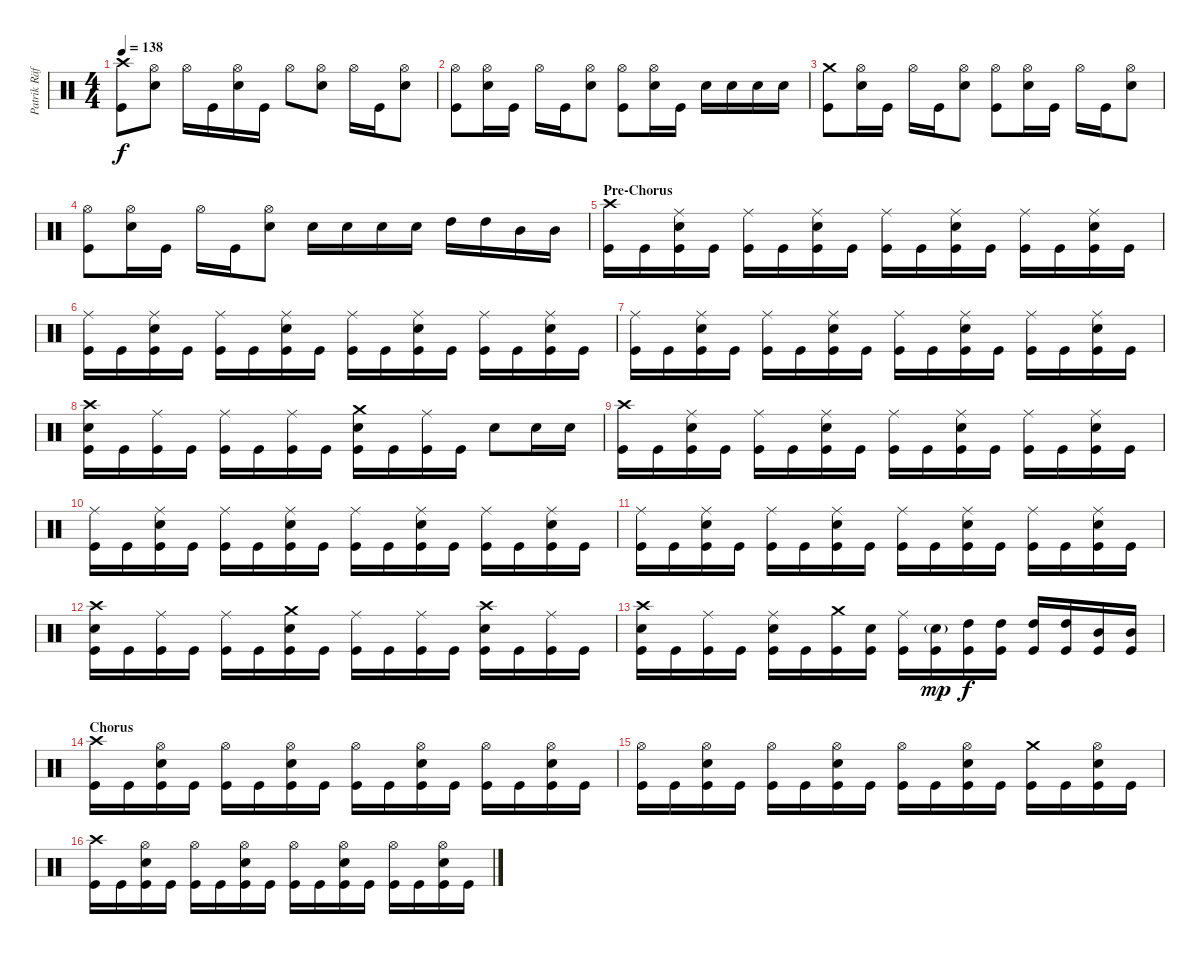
\track ("Patrik Räfling" "Patrik Räf") {instrument percussion}
\staff {score}
\articulation defaults
\ts (4 4)
\tempo 138
\clef neutral
\ks c
("Crash high (hit)" "Kick (hit)").8{dy f} ("Hi-Hat (open)" "Snare (hit) 2").8 "Hi-Hat (open)".16 "Kick (hit)".16 ("Hi-Hat (open)" "Snare (hit) 2").16 "Kick (hit)".16 "Hi-Hat (open)".8 ("Hi-Hat (open)" "Snare (hit) 2").8 "Hi-Hat (open)".16 "Kick (hit)".16 ("Hi-Hat (open)" "Snare (hit) 2").8 |
("Hi-Hat (open)" "Kick (hit)").8 ("Hi-Hat (open)" "Snare (hit) 2").16 "Kick (hit)".16 "Hi-Hat (open)".16 "Kick (hit)".16 ("Hi-Hat (open)" "Snare (hit) 2").8 ("Hi-Hat (open)" "Kick (hit)").8 ("Hi-Hat (open)" "Snare (hit) 2").16 "Kick (hit)".16 "Snare (hit) 2".16 "Snare (hit) 2".16 "Snare (hit) 2".16 "Snare (hit) 2".16 |
("Crash medium (hit)" "Kick (hit)").8 ("Hi-Hat (open)" "Snare (hit) 2").16 "Kick (hit)".16 "Hi-Hat (open)".16 "Kick (hit)".16 ("Hi-Hat (open)" "Snare (hit) 2").8 ("Hi-Hat (open)" "Kick (hit)").8 ("Hi-Hat (open)" "Snare (hit) 2").16 "Kick (hit)".16 "Hi-Hat (open)".16 "Kick (hit)".16 ("Hi-Hat (open)" "Snare (hit) 2").8 |
("Hi-Hat (open)" "Kick (hit)").8 ("Hi-Hat (open)" "Snare (hit) 2").16 "Kick (hit)".16 "Hi-Hat (open)".16 "Kick (hit)".16 ("Hi-Hat (open)" "Snare (hit) 2").8 "Snare (hit) 2".16 "Snare (hit) 2".16 "Snare (hit) 2".16 "Snare (hit) 2".16 "High Tom (hit)".16 "High Tom (hit)".16 "Mid Tom (hit)".16 "Mid Tom (hit)".16 |
\section ("" "Pre-Chorus")
("Crash high (hit)" "Kick (hit)").16 "Kick (hit)".16 ("Ride (middle)" "Snare (hit) 2" "Kick (hit)").16 "Kick (hit)".16 ("Ride (middle)" "Kick (hit)").16 "Kick (hit)".16 ("Ride (middle)" "Snare (hit) 2" "Kick (hit)").16 "Kick (hit)".16 ("Ride (middle)" "Kick (hit)").16 "Kick (hit)".16 ("Ride (middle)" "Snare (hit) 2" "Kick (hit)").16 "Kick (hit)".16 ("Ride (middle)" "Kick (hit)").16 "Kick (hit)".16 ("Ride (middle)" "Snare (hit) 2" "Kick (hit)").16 "Kick (hit)".16 |
("Ride (middle)" "Kick (hit)").16 "Kick (hit)".16 ("Ride (middle)" "Snare (hit) 2" "Kick (hit)").16 "Kick (hit)".16 ("Ride (middle)" "Kick (hit)").16 "Kick (hit)".16 ("Ride (middle)" "Snare (hit) 2" "Kick (hit)").16 "Kick (hit)".16 ("Ride (middle)" "Kick (hit)").16 "Kick (hit)".16 ("Ride (middle)" "Snare (hit) 2" "Kick (hit)").16 "Kick (hit)".16 ("Ride (middle)" "Kick (hit)").16 "Kick (hit)".16 ("Ride (middle)" "Snare (hit) 2" "Kick (hit)").16 "Kick (hit)".16 |
("Ride (middle)" "Kick (hit)").16 "Kick (hit)".16 ("Ride (middle)" "Snare (hit) 2" "Kick (hit)").16 "Kick (hit)".16 ("Ride (middle)" "Kick (hit)").16 "Kick (hit)".16 ("Ride (middle)" "Snare (hit) 2" "Kick (hit)").16 "Kick (hit)".16 ("Ride (middle)" "Kick (hit)").16 "Kick (hit)".16 ("Ride (middle)" "Snare (hit) 2" "Kick (hit)").16 "Kick (hit)".16 ("Ride (middle)" "Kick (hit)").16 "Kick (hit)".16 ("Ride (middle)" "Snare (hit) 2" "Kick (hit)").16 "Kick (hit)".16 |
("Crash high (hit)" "Snare (hit) 2" "Kick (hit)").16 "Kick (hit)".16 ("Ride (middle)" "Kick (hit)").16 "Kick (hit)".16 ("Ride (middle)" "Kick (hit)").16 "Kick (hit)".16 ("Ride (middle)" "Kick (hit)").16 "Kick (hit)".16 ("Crash medium (hit)" "Snare (hit) 2" "Kick (hit)").16 "Kick (hit)".16 ("Ride (middle)" "Kick (hit)").16 "Kick (hit)".16 "Snare (hit) 2".8 "Snare (hit) 2".16 "Snare (hit) 2".16 |
("Crash high (hit)" "Kick (hit)").16 "Kick (hit)".16 ("Ride (middle)" "Snare (hit) 2" "Kick (hit)").16 "Kick (hit)".16 ("Ride (middle)" "Kick (hit)").16 "Kick (hit)".16 ("Ride (middle)" "Snare (hit) 2" "Kick (hit)").16 "Kick (hit)".16 ("Ride (middle)" "Kick (hit)").16 "Kick (hit)".16 ("Ride (middle)" "Snare (hit) 2" "Kick (hit)").16 "Kick (hit)".16 ("Ride (middle)" "Kick (hit)").16 "Kick (hit)".16 ("Ride (middle)" "Snare (hit) 2" "Kick (hit)").16 "Kick (hit)".16 |
("Ride (middle)" "Kick (hit)").16 "Kick (hit)".16 ("Ride (middle)" "Snare (hit) 2" "Kick (hit)").16 "Kick (hit)".16 ("Ride (middle)" "Kick (hit)").16 "Kick (hit)".16 ("Ride (middle)" "Snare (hit) 2" "Kick (hit)").16 "Kick (hit)".16 ("Ride (middle)" "Kick (hit)").16 "Kick (hit)".16 ("Ride (middle)" "Snare (hit) 2" "Kick (hit)").16 "Kick (hit)".16 ("Ride (middle)" "Kick (hit)").16 "Kick (hit)".16 ("Ride (middle)" "Snare (hit) 2" "Kick (hit)").16 "Kick (hit)".16 |
("Ride (middle)" "Kick (hit)").16 "Kick (hit)".16 ("Ride (middle)" "Snare (hit) 2" "Kick (hit)").16 "Kick (hit)".16 ("Ride (middle)" "Kick (hit)").16 "Kick (hit)".16 ("Ride (middle)" "Snare (hit) 2" "Kick (hit)").16 "Kick (hit)".16 ("Ride (middle)" "Kick (hit)").16 "Kick (hit)".16 ("Ride (middle)" "Snare (hit) 2" "Kick (hit)").16 "Kick (hit)".16 ("Ride (middle)" "Kick (hit)").16 "Kick (hit)".16 ("Ride (middle)" "Snare (hit) 2" "Kick (hit)").16 "Kick (hit)".16 |
("Crash high (hit)" "Snare (hit) 2" "Kick (hit)").16 "Kick (hit)".16 ("Ride (middle)" "Kick (hit)").16 "Kick (hit)".16 ("Ride (middle)" "Kick (hit)").16 "Kick (hit)".16 ("Crash medium (hit)" "Snare (hit) 2" "Kick (hit)").16 "Kick (hit)".16 ("Ride (middle)" "Kick (hit)").16 "Kick (hit)".16 ("Ride (middle)" "Kick (hit)").16 "Kick (hit)".16 ("Crash high (hit)" "Snare (hit) 2" "Kick (hit)").16 "Kick (hit)".16 ("Ride (middle)" "Kick (hit)").16 "Kick (hit)".16 |
("Crash high (hit)" "Snare (hit) 2" "Kick (hit)").16 "Kick (hit)".16 ("Ride (middle)" "Kick (hit)").16 "Kick (hit)".16 ("Ride (middle)" "Snare (hit) 2" "Kick (hit)").16 "Kick (hit)".16 ("Crash medium (hit)" "Kick (hit)").16 ("Snare (hit) 2" "Kick (hit)").16 ("Ride (middle)" "Kick (hit)").16 ("Snare (hit) 2"{g} "Kick (hit)").16{dy mp} ("High Tom (hit)" "Kick (hit)").16{dy f} ("High Tom (hit)" "Kick (hit)").16 ("High Tom (hit)" "Kick (hit)").16 ("High Tom (hit)" "Kick (hit)").16 ("Mid Tom (hit)" "Kick (hit)").16 ("Mid Tom (hit)" "Kick (hit)").16 |
\section ("" "Chorus")
("Crash high (hit)" "Kick (hit)").16 "Kick (hit)".16 ("Hi-Hat (open)" "Snare (hit) 2" "Kick (hit)").16 "Kick (hit)".16 ("Hi-Hat (open)" "Kick (hit)").16 "Kick (hit)".16 ("Hi-Hat (open)" "Snare (hit) 2" "Kick (hit)").16 "Kick (hit)".16 ("Hi-Hat (open)" "Kick (hit)").16 "Kick (hit)".16 ("Hi-Hat (open)" "Snare (hit) 2" "Kick (hit)").16 "Kick (hit)".16 ("Hi-Hat (open)" "Kick (hit)").16 "Kick (hit)".16 ("Hi-Hat (open)" "Snare (hit) 2" "Kick (hit)").16 "Kick (hit)".16 |
("Hi-Hat (open)" "Kick (hit)").16 "Kick (hit)".16 ("Hi-Hat (open)" "Snare (hit) 2" "Kick (hit)").16 "Kick (hit)".16 ("Hi-Hat (open)" "Kick (hit)").16 "Kick (hit)".16 ("Hi-Hat (open)" "Snare (hit) 2" "Kick (hit)").16 "Kick (hit)".16 ("Hi-Hat (open)" "Kick (hit)").16 "Kick (hit)".16 ("Hi-Hat (open)" "Snare (hit) 2" "Kick (hit)").16 "Kick (hit)".16 ("Crash medium (hit)" "Kick (hit)").16 "Kick (hit)".16 ("Hi-Hat (open)" "Snare (hit) 2" "Kick (hit)").16 "Kick (hit)".16 |
("Crash high (hit)" "Kick (hit)").16 "Kick (hit)".16 ("Hi-Hat (open)" "Snare (hit) 2" "Kick (hit)").16 "Kick (hit)".16 ("Hi-Hat (open)" "Kick (hit)").16 "Kick (hit)".16 ("Hi-Hat (open)" "Snare (hit) 2" "Kick (hit)").16 "Kick (hit)".16 ("Hi-Hat (open)" "Kick (hit)").16 "Kick (hit)".16 ("Hi-Hat (open)" "Snare (hit) 2" "Kick (hit)").16 "Kick (hit)".16 ("Hi-Hat (open)" "Kick (hit)").16 "Kick (hit)".16 ("Hi-Hat (open)" "Snare (hit) 2" "Kick (hit)").16 "Kick (hit)".16
